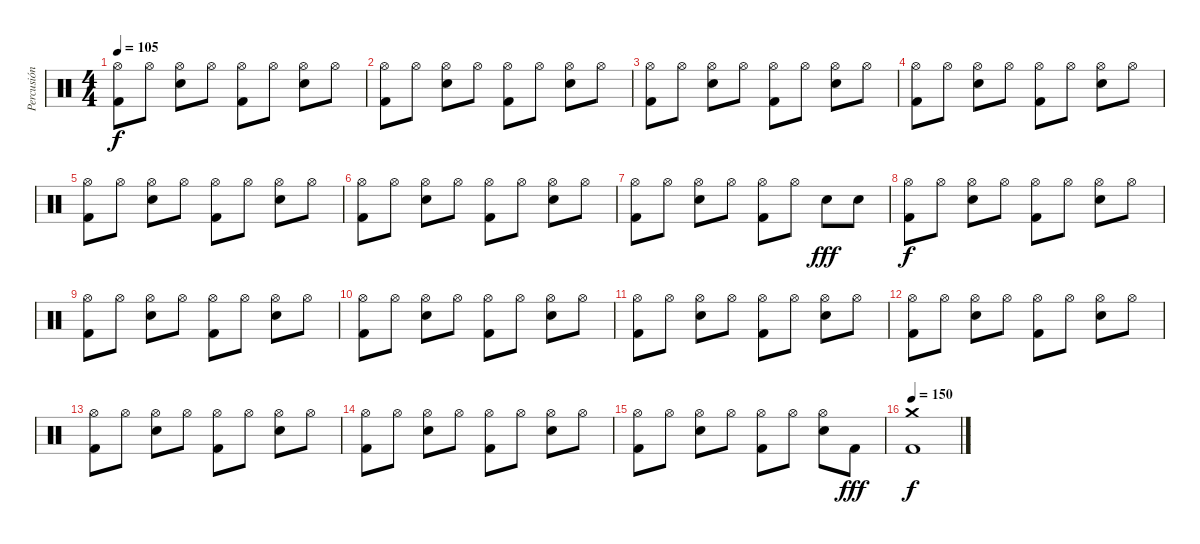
\track ("Percusión" "Percusión") {instrument percussion}
\staff {score}
\articulation defaults
\ts (4 4)
\tempo 105
\clef neutral
\ks c
("Hi-Hat (open)" "Kick (hit) 2").8{dy f} "Hi-Hat (open)".8 ("Hi-Hat (open)" "Electric Snare (hit)").8 "Hi-Hat (open)".8 ("Hi-Hat (open)" "Kick (hit) 2").8 "Hi-Hat (open)".8 ("Hi-Hat (open)" "Electric Snare (hit)").8 "Hi-Hat (open)".8 |
("Hi-Hat (open)" "Kick (hit) 2").8 "Hi-Hat (open)".8 ("Hi-Hat (open)" "Electric Snare (hit)").8 "Hi-Hat (open)".8 ("Hi-Hat (open)" "Kick (hit) 2").8 "Hi-Hat (open)".8 ("Hi-Hat (open)" "Electric Snare (hit)").8 "Hi-Hat (open)".8 |
("Hi-Hat (open)" "Kick (hit) 2").8 "Hi-Hat (open)".8 ("Hi-Hat (open)" "Electric Snare (hit)").8 "Hi-Hat (open)".8 ("Hi-Hat (open)" "Kick (hit) 2").8 "Hi-Hat (open)".8 ("Hi-Hat (open)" "Electric Snare (hit)").8 "Hi-Hat (open)".8 |
("Hi-Hat (open)" "Kick (hit) 2").8 "Hi-Hat (open)".8 ("Hi-Hat (open)" "Electric Snare (hit)").8 "Hi-Hat (open)".8 ("Hi-Hat (open)" "Kick (hit) 2").8 "Hi-Hat (open)".8 ("Hi-Hat (open)" "Electric Snare (hit)").8 "Hi-Hat (open)".8 |
("Hi-Hat (open)" "Kick (hit) 2").8 "Hi-Hat (open)".8 ("Hi-Hat (open)" "Electric Snare (hit)").8 "Hi-Hat (open)".8 ("Hi-Hat (open)" "Kick (hit) 2").8 "Hi-Hat (open)".8 ("Hi-Hat (open)" "Electric Snare (hit)").8 "Hi-Hat (open)".8 |
("Hi-Hat (open)" "Kick (hit) 2").8 "Hi-Hat (open)".8 ("Hi-Hat (open)" "Electric Snare (hit)").8 "Hi-Hat (open)".8 ("Hi-Hat (open)" "Kick (hit) 2").8 "Hi-Hat (open)".8 ("Hi-Hat (open)" "Electric Snare (hit)").8 "Hi-Hat (open)".8 |
("Hi-Hat (open)" "Kick (hit) 2").8 "Hi-Hat (open)".8 ("Hi-Hat (open)" "Electric Snare (hit)").8 "Hi-Hat (open)".8 ("Hi-Hat (open)" "Kick (hit) 2").8 "Hi-Hat (open)".8 "Electric Snare (hit)".8{dy fff} "Electric Snare (hit)".8 |
("Hi-Hat (open)" "Kick (hit) 2").8{dy f} "Hi-Hat (open)".8 ("Hi-Hat (open)" "Electric Snare (hit)").8 "Hi-Hat (open)".8 ("Hi-Hat (open)" "Kick (hit) 2").8 "Hi-Hat (open)".8 ("Hi-Hat (open)" "Electric Snare (hit)").8 "Hi-Hat (open)".8 |
("Hi-Hat (open)" "Kick (hit) 2").8 "Hi-Hat (open)".8 ("Hi-Hat (open)" "Electric Snare (hit)").8 "Hi-Hat (open)".8 ("Hi-Hat (open)" "Kick (hit) 2").8 "Hi-Hat (open)".8 ("Hi-Hat (open)" "Electric Snare (hit)").8 "Hi-Hat (open)".8 |
("Hi-Hat (open)" "Kick (hit) 2").8 "Hi-Hat (open)".8 ("Hi-Hat (open)" "Electric Snare (hit)").8 "Hi-Hat (open)".8 ("Hi-Hat (open)" "Kick (hit) 2").8 "Hi-Hat (open)".8 ("Hi-Hat (open)" "Electric Snare (hit)").8 "Hi-Hat (open)".8 |
("Hi-Hat (open)" "Kick (hit) 2").8 "Hi-Hat (open)".8 ("Hi-Hat (open)" "Electric Snare (hit)").8 "Hi-Hat (open)".8 ("Hi-Hat (open)" "Kick (hit) 2").8 "Hi-Hat (open)".8 ("Hi-Hat (open)" "Electric Snare (hit)").8 "Hi-Hat (open)".8 |
("Hi-Hat (open)" "Kick (hit) 2").8 "Hi-Hat (open)".8 ("Hi-Hat (open)" "Electric Snare (hit)").8 "Hi-Hat (open)".8 ("Hi-Hat (open)" "Kick (hit) 2").8 "Hi-Hat (open)".8 ("Hi-Hat (open)" "Electric Snare (hit)").8 "Hi-Hat (open)".8 |
("Hi-Hat (open)" "Kick (hit) 2").8 "Hi-Hat (open)".8 ("Hi-Hat (open)" "Electric Snare (hit)").8 "Hi-Hat (open)".8 ("Hi-Hat (open)" "Kick (hit) 2").8 "Hi-Hat (open)".8 ("Hi-Hat (open)" "Electric Snare (hit)").8 "Hi-Hat (open)".8 |
("Hi-Hat (open)" "Kick (hit) 2").8 "Hi-Hat (open)".8 ("Hi-Hat (open)" "Electric Snare (hit)").8 "Hi-Hat (open)".8 ("Hi-Hat (open)" "Kick (hit) 2").8 "Hi-Hat (open)".8 ("Hi-Hat (open)" "Electric Snare (hit)").8 "Hi-Hat (open)".8 |
("Hi-Hat (open)" "Kick (hit) 2").8 "Hi-Hat (open)".8 ("Hi-Hat (open)" "Electric Snare (hit)").8 "Hi-Hat (open)".8 ("Hi-Hat (open)" "Kick (hit) 2").8 "Hi-Hat (open)".8 ("Hi-Hat (open)" "Electric Snare (hit)").8 "Kick (hit) 2".8{dy fff} |
\tempo 150
("Crash medium (hit)" "Kick (hit) 2").1{dy f}
